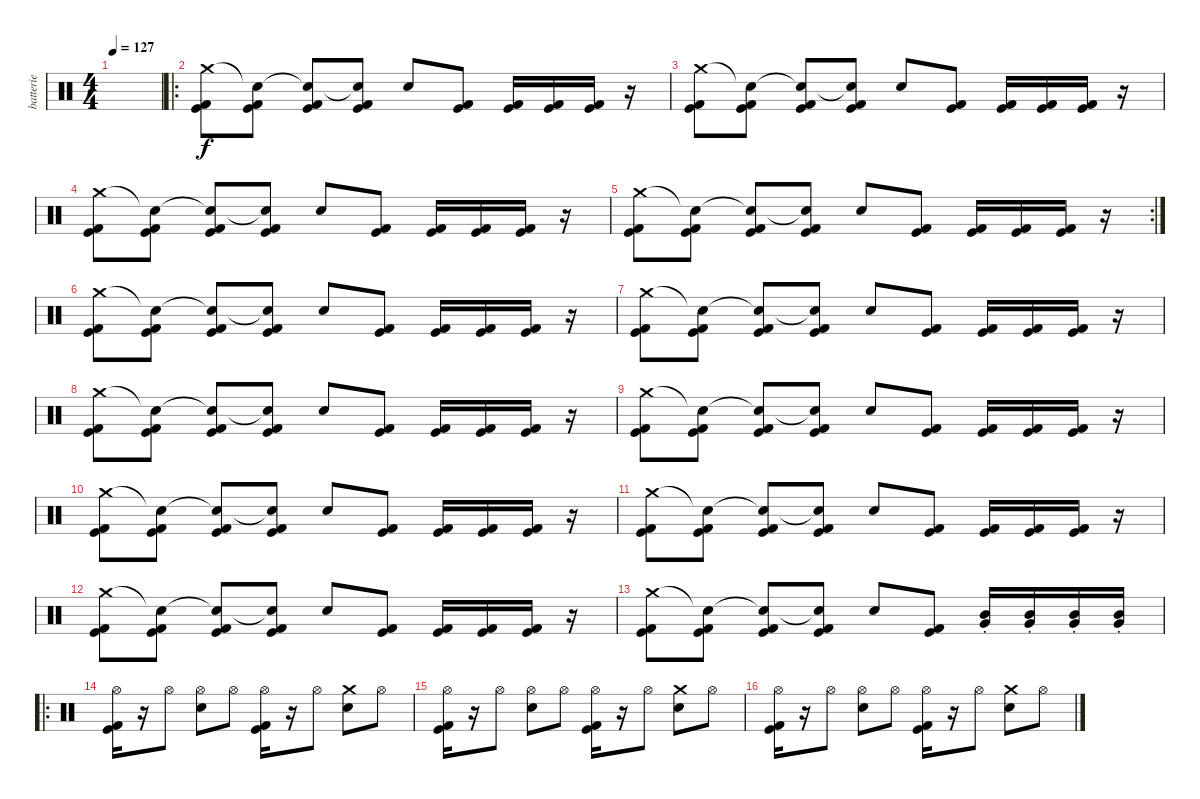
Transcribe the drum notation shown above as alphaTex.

\track ("batterie" "batterie") {instrument percussion}
\staff {score}
\articulation defaults
\ts (4 4)
\tempo 127
\clef neutral
\ks c
|
\ro
("Crash medium (hit)" "Kick (hit) 2" "Kick (hit)").8 ("Snare (hit)"{t} "Kick (hit) 2" "Kick (hit)").8 ("Snare (hit)"{t} "Kick (hit) 2" "Kick (hit)").8 ("Snare (hit)"{t} "Kick (hit) 2" "Kick (hit)").8 "Electric Snare (hit)".8 ("Kick (hit) 2" "Kick (hit)").8 ("Kick (hit) 2" "Kick (hit)").16 ("Kick (hit) 2" "Kick (hit)").16 ("Kick (hit) 2" "Kick (hit)").16 r.16 |
("Crash medium (hit)" "Kick (hit) 2" "Kick (hit)").8 ("Snare (hit)"{t} "Kick (hit) 2" "Kick (hit)").8 ("Snare (hit)"{t} "Kick (hit) 2" "Kick (hit)").8 ("Snare (hit)"{t} "Kick (hit) 2" "Kick (hit)").8 "Electric Snare (hit)".8 ("Kick (hit) 2" "Kick (hit)").8 ("Kick (hit) 2" "Kick (hit)").16 ("Kick (hit) 2" "Kick (hit)").16 ("Kick (hit) 2" "Kick (hit)").16 r.16 |
("Crash medium (hit)" "Kick (hit) 2" "Kick (hit)").8 ("Snare (hit)"{t} "Kick (hit) 2" "Kick (hit)").8 ("Snare (hit)"{t} "Kick (hit) 2" "Kick (hit)").8 ("Snare (hit)"{t} "Kick (hit) 2" "Kick (hit)").8 "Electric Snare (hit)".8 ("Kick (hit) 2" "Kick (hit)").8 ("Kick (hit) 2" "Kick (hit)").16 ("Kick (hit) 2" "Kick (hit)").16 ("Kick (hit) 2" "Kick (hit)").16 r.16 |
\rc 2
("Crash medium (hit)" "Kick (hit) 2" "Kick (hit)").8 ("Snare (hit)"{t} "Kick (hit) 2" "Kick (hit)").8 ("Snare (hit)"{t} "Kick (hit) 2" "Kick (hit)").8 ("Snare (hit)"{t} "Kick (hit) 2" "Kick (hit)").8 "Electric Snare (hit)".8 ("Kick (hit) 2" "Kick (hit)").8 ("Kick (hit) 2" "Kick (hit)").16 ("Kick (hit) 2" "Kick (hit)").16 ("Kick (hit) 2" "Kick (hit)").16 r.16 |
("Crash medium (hit)" "Kick (hit) 2" "Kick (hit)").8 ("Snare (hit)"{t} "Kick (hit) 2" "Kick (hit)").8 ("Snare (hit)"{t} "Kick (hit) 2" "Kick (hit)").8 ("Snare (hit)"{t} "Kick (hit) 2" "Kick (hit)").8 "Electric Snare (hit)".8 ("Kick (hit) 2" "Kick (hit)").8 ("Kick (hit) 2" "Kick (hit)").16 ("Kick (hit) 2" "Kick (hit)").16 ("Kick (hit) 2" "Kick (hit)").16 r.16 |
("Crash medium (hit)" "Kick (hit) 2" "Kick (hit)").8 ("Snare (hit)"{t} "Kick (hit) 2" "Kick (hit)").8 ("Snare (hit)"{t} "Kick (hit) 2" "Kick (hit)").8 ("Snare (hit)"{t} "Kick (hit) 2" "Kick (hit)").8 "Electric Snare (hit)".8 ("Kick (hit) 2" "Kick (hit)").8 ("Kick (hit) 2" "Kick (hit)").16 ("Kick (hit) 2" "Kick (hit)").16 ("Kick (hit) 2" "Kick (hit)").16 r.16 |
("Crash medium (hit)" "Kick (hit) 2" "Kick (hit)").8 ("Snare (hit)"{t} "Kick (hit) 2" "Kick (hit)").8 ("Snare (hit)"{t} "Kick (hit) 2" "Kick (hit)").8 ("Snare (hit)"{t} "Kick (hit) 2" "Kick (hit)").8 "Electric Snare (hit)".8 ("Kick (hit) 2" "Kick (hit)").8 ("Kick (hit) 2" "Kick (hit)").16 ("Kick (hit) 2" "Kick (hit)").16 ("Kick (hit) 2" "Kick (hit)").16 r.16 |
("Crash medium (hit)" "Kick (hit) 2" "Kick (hit)").8 ("Snare (hit)"{t} "Kick (hit) 2" "Kick (hit)").8 ("Snare (hit)"{t} "Kick (hit) 2" "Kick (hit)").8 ("Snare (hit)"{t} "Kick (hit) 2" "Kick (hit)").8 "Electric Snare (hit)".8 ("Kick (hit) 2" "Kick (hit)").8 ("Kick (hit) 2" "Kick (hit)").16 ("Kick (hit) 2" "Kick (hit)").16 ("Kick (hit) 2" "Kick (hit)").16 r.16 |
("Crash medium (hit)" "Kick (hit) 2" "Kick (hit)").8 ("Snare (hit)"{t} "Kick (hit) 2" "Kick (hit)").8 ("Snare (hit)"{t} "Kick (hit) 2" "Kick (hit)").8 ("Snare (hit)"{t} "Kick (hit) 2" "Kick (hit)").8 "Electric Snare (hit)".8 ("Kick (hit) 2" "Kick (hit)").8 ("Kick (hit) 2" "Kick (hit)").16 ("Kick (hit) 2" "Kick (hit)").16 ("Kick (hit) 2" "Kick (hit)").16 r.16 |
("Crash medium (hit)" "Kick (hit) 2" "Kick (hit)").8 ("Snare (hit)"{t} "Kick (hit) 2" "Kick (hit)").8 ("Snare (hit)"{t} "Kick (hit) 2" "Kick (hit)").8 ("Snare (hit)"{t} "Kick (hit) 2" "Kick (hit)").8 "Electric Snare (hit)".8 ("Kick (hit) 2" "Kick (hit)").8 ("Kick (hit) 2" "Kick (hit)").16 ("Kick (hit) 2" "Kick (hit)").16 ("Kick (hit) 2" "Kick (hit)").16 r.16 |
("Crash medium (hit)" "Kick (hit) 2" "Kick (hit)").8 ("Snare (hit)"{t} "Kick (hit) 2" "Kick (hit)").8 ("Snare (hit)"{t} "Kick (hit) 2" "Kick (hit)").8 ("Snare (hit)"{t} "Kick (hit) 2" "Kick (hit)").8 "Electric Snare (hit)".8 ("Kick (hit) 2" "Kick (hit)").8 ("Kick (hit) 2" "Kick (hit)").16 ("Kick (hit) 2" "Kick (hit)").16 ("Kick (hit) 2" "Kick (hit)").16 r.16 |
("Crash medium (hit)" "Kick (hit) 2" "Kick (hit)").8 ("Snare (hit)"{t} "Kick (hit) 2" "Kick (hit)").8 ("Snare (hit)"{t} "Kick (hit) 2" "Kick (hit)").8 ("Snare (hit)"{t} "Kick (hit) 2" "Kick (hit)").8 "Electric Snare (hit)".8 ("Kick (hit) 2" "Kick (hit)").8 ("Mid Tom (hit)"{st} "Very Low Tom (hit)"{st}).16 ("Mid Tom (hit)"{st} "Very Low Tom (hit)"{st}).16 ("Mid Tom (hit)"{st} "Very Low Tom (hit)"{st}).16 ("Mid Tom (hit)"{st} "Very Low Tom (hit)"{st}).16 |
\ro
("Hi-Hat (open)" "Kick (hit) 2" "Kick (hit)").16 r.16 "Hi-Hat (open)".8 ("Hi-Hat (open)" "Electric Snare (hit)").8 "Hi-Hat (open)".8 ("Hi-Hat (open)" "Kick (hit) 2" "Kick (hit)").16 r.16 "Hi-Hat (open)".8 ("Crash medium (hit)" "Electric Snare (hit)").8 "Hi-Hat (open)".8 |
("Hi-Hat (open)" "Kick (hit) 2" "Kick (hit)").16 r.16 "Hi-Hat (open)".8 ("Hi-Hat (open)" "Electric Snare (hit)").8 "Hi-Hat (open)".8 ("Hi-Hat (open)" "Kick (hit) 2" "Kick (hit)").16 r.16 "Hi-Hat (open)".8 ("Crash medium (hit)" "Electric Snare (hit)").8 "Hi-Hat (open)".8 |
("Hi-Hat (open)" "Kick (hit) 2" "Kick (hit)").16 r.16 "Hi-Hat (open)".8 ("Hi-Hat (open)" "Electric Snare (hit)").8 "Hi-Hat (open)".8 ("Hi-Hat (open)" "Kick (hit) 2" "Kick (hit)").16 r.16 "Hi-Hat (open)".8 ("Crash medium (hit)" "Electric Snare (hit)").8 "Hi-Hat (open)".8
